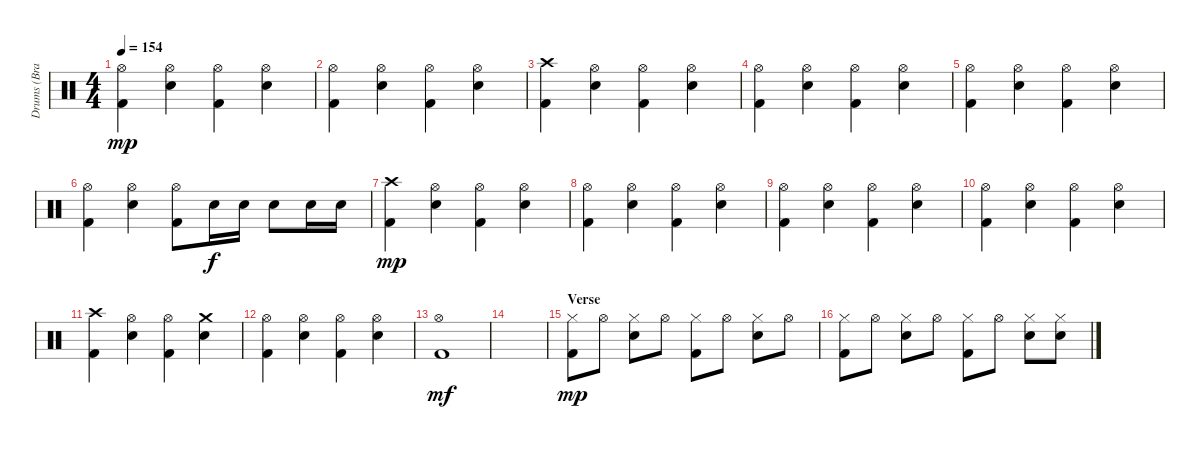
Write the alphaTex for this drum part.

\track ("Drums (Brandon Saller)" "Drums (Bra") {instrument percussion}
\staff {score}
\articulation defaults
\ts (4 4)
\tempo 154
\clef neutral
\ks c
("Hi-Hat (open)" "Kick (hit) 2").4{dy mp} ("Hi-Hat (open)" "Electric Snare (hit)").4 ("Hi-Hat (open)" "Kick (hit) 2").4 ("Hi-Hat (open)" "Electric Snare (hit)").4 |
("Hi-Hat (open)" "Kick (hit) 2").4 ("Hi-Hat (open)" "Electric Snare (hit)").4 ("Hi-Hat (open)" "Kick (hit) 2").4 ("Hi-Hat (open)" "Electric Snare (hit)").4 |
("Crash high (hit)" "Kick (hit) 2").4 ("Hi-Hat (open)" "Electric Snare (hit)").4 ("Hi-Hat (open)" "Kick (hit) 2").4 ("Hi-Hat (open)" "Electric Snare (hit)").4 |
("Hi-Hat (open)" "Kick (hit) 2").4 ("Hi-Hat (open)" "Electric Snare (hit)").4 ("Hi-Hat (open)" "Kick (hit) 2").4 ("Hi-Hat (open)" "Electric Snare (hit)").4 |
("Hi-Hat (open)" "Kick (hit) 2").4 ("Hi-Hat (open)" "Electric Snare (hit)").4 ("Hi-Hat (open)" "Kick (hit) 2").4 ("Hi-Hat (open)" "Electric Snare (hit)").4 |
("Hi-Hat (open)" "Kick (hit) 2").4 ("Hi-Hat (open)" "Electric Snare (hit)").4 ("Hi-Hat (open)" "Kick (hit) 2").8 "Electric Snare (hit)".16{dy f} "Electric Snare (hit)".16 "Electric Snare (hit)".8 "Electric Snare (hit)".16 "Electric Snare (hit)".16 |
("Crash high (hit)" "Kick (hit) 2").4{dy mp} ("Hi-Hat (open)" "Electric Snare (hit)").4 ("Hi-Hat (open)" "Kick (hit) 2").4 ("Hi-Hat (open)" "Electric Snare (hit)").4 |
("Hi-Hat (open)" "Kick (hit) 2").4 ("Hi-Hat (open)" "Electric Snare (hit)").4 ("Hi-Hat (open)" "Kick (hit) 2").4 ("Hi-Hat (open)" "Electric Snare (hit)").4 |
("Hi-Hat (open)" "Kick (hit) 2").4 ("Hi-Hat (open)" "Electric Snare (hit)").4 ("Hi-Hat (open)" "Kick (hit) 2").4 ("Hi-Hat (open)" "Electric Snare (hit)").4 |
("Hi-Hat (open)" "Kick (hit) 2").4 ("Hi-Hat (open)" "Electric Snare (hit)").4 ("Hi-Hat (open)" "Kick (hit) 2").4 ("Hi-Hat (open)" "Electric Snare (hit)").4 |
("Crash high (hit)" "Kick (hit) 2").4 ("Hi-Hat (open)" "Electric Snare (hit)").4 ("Hi-Hat (open)" "Kick (hit) 2").4 ("Crash medium (hit)" "Electric Snare (hit)").4 |
("Hi-Hat (open)" "Kick (hit) 2").4 ("Hi-Hat (open)" "Electric Snare (hit)").4 ("Hi-Hat (open)" "Kick (hit) 2").4 ("Hi-Hat (open)" "Electric Snare (hit)").4 |
("Hi-Hat (open)" "Kick (hit) 2").1{dy mf} |
|
\section ("" "Verse")
("Hi-Hat (closed)" "Kick (hit) 2").8{dy mp} "Hi-Hat (open)".8 ("Hi-Hat (closed)" "Electric Snare (hit)").8 "Hi-Hat (open)".8 ("Hi-Hat (closed)" "Kick (hit) 2").8 "Hi-Hat (open)".8 ("Hi-Hat (closed)" "Electric Snare (hit)").8 "Hi-Hat (open)".8 |
("Hi-Hat (closed)" "Kick (hit) 2").8 "Hi-Hat (open)".8 ("Hi-Hat (closed)" "Electric Snare (hit)").8 "Hi-Hat (open)".8 ("Hi-Hat (closed)" "Kick (hit) 2").8 "Hi-Hat (open)".8 ("Hi-Hat (closed)" "Electric Snare (hit)").8 ("Hi-Hat (closed)" "Electric Snare (hit)").8
